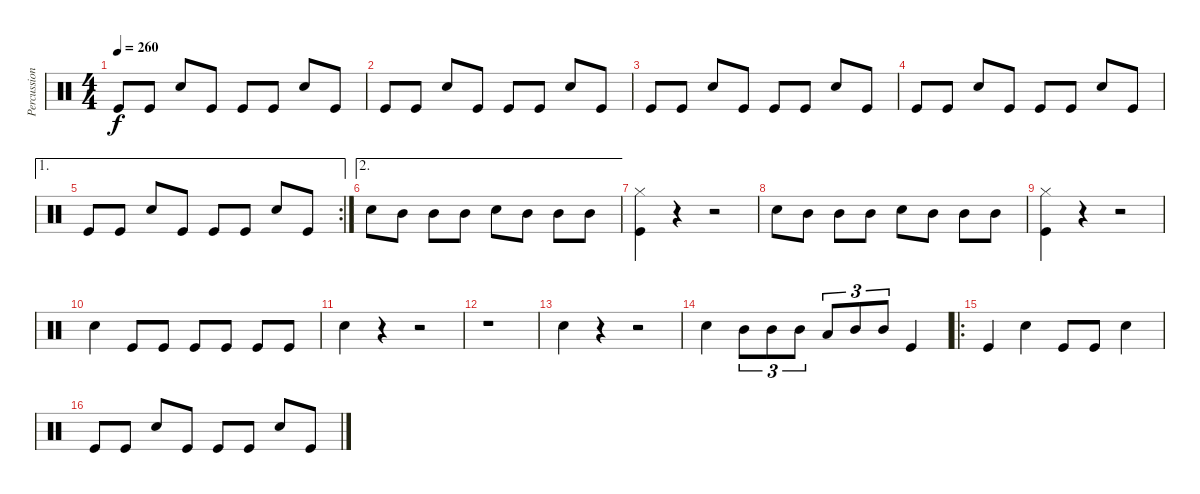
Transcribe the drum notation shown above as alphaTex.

\track ("Percussion" "Percussion") {instrument percussion}
\staff {score}
\articulation defaults
\ts (4 4)
\tempo 260
\clef neutral
\ks c "Kick (hit)".8{dy f} "Kick (hit)".8 "Electric Snare (hit)".8 "Kick (hit)".8 "Kick (hit)".8 "Kick (hit)".8 "Electric Snare (hit)".8 "Kick (hit)".8
|
"Kick (hit)".8 "Kick (hit)".8 "Electric Snare (hit)".8 "Kick (hit)".8 "Kick (hit)".8 "Kick (hit)".8 "Electric Snare (hit)".8 "Kick (hit)".8 |
"Kick (hit)".8 "Kick (hit)".8 "Electric Snare (hit)".8 "Kick (hit)".8 "Kick (hit)".8 "Kick (hit)".8 "Electric Snare (hit)".8 "Kick (hit)".8 |
"Kick (hit)".8 "Kick (hit)".8 "Electric Snare (hit)".8 "Kick (hit)".8 "Kick (hit)".8 "Kick (hit)".8 "Electric Snare (hit)".8 "Kick (hit)".8 |
\ae 1
\rc 2 "Kick (hit)".8 "Kick (hit)".8 "Electric Snare (hit)".8 "Kick (hit)".8 "Kick (hit)".8 "Kick (hit)".8 "Electric Snare (hit)".8 "Kick (hit)".8
|
\ae 2 "Snare (hit) 2".8 "Mid Tom (hit)".8 "Mid Tom (hit)".8 "Mid Tom (hit)".8 "Snare (hit) 2".8 "Mid Tom (hit)".8 "Mid Tom (hit)".8 "Mid Tom (hit)".8
|
("Hi-Hat (closed)" "Kick (hit)").4 r.4 r.2 |
"Snare (hit) 2".8 "Mid Tom (hit)".8 "Mid Tom (hit)".8 "Mid Tom (hit)".8 "Snare (hit) 2".8 "Mid Tom (hit)".8 "Mid Tom (hit)".8 "Mid Tom (hit)".8 |
("Hi-Hat (closed)" "Kick (hit)").4 r.4 r.2 |
"Snare (hit) 2".4 "Kick (hit)".8 "Kick (hit)".8 "Kick (hit)".8 "Kick (hit)".8 "Kick (hit)".8 "Kick (hit)".8 |
"Snare (hit) 2".4 r.4 r.2 |
r.1 |
"Snare (hit) 2".4 r.4 r.2 |
"Snare (hit) 2".4 "Mid Tom (hit)".8{tu (3 2)} "Mid Tom (hit)".8{tu (3 2)} "Mid Tom (hit)".8{tu (3 2)} "Low Floor Tom (hit)".8{tu (3 2)} "Mid Tom (hit)".8{tu (3 2)} "Mid Tom (hit)".8{tu (3 2)} "Kick (hit)".4 |
\ro "Kick (hit)".4 "Snare (hit) 2".4 "Kick (hit)".8 "Kick (hit)".8 "Snare (hit) 2".4
|
"Kick (hit)".8 "Kick (hit)".8 "Snare (hit) 2".8 "Kick (hit)".8 "Kick (hit)".8 "Kick (hit)".8 "Snare (hit) 2".8 "Kick (hit)".8
